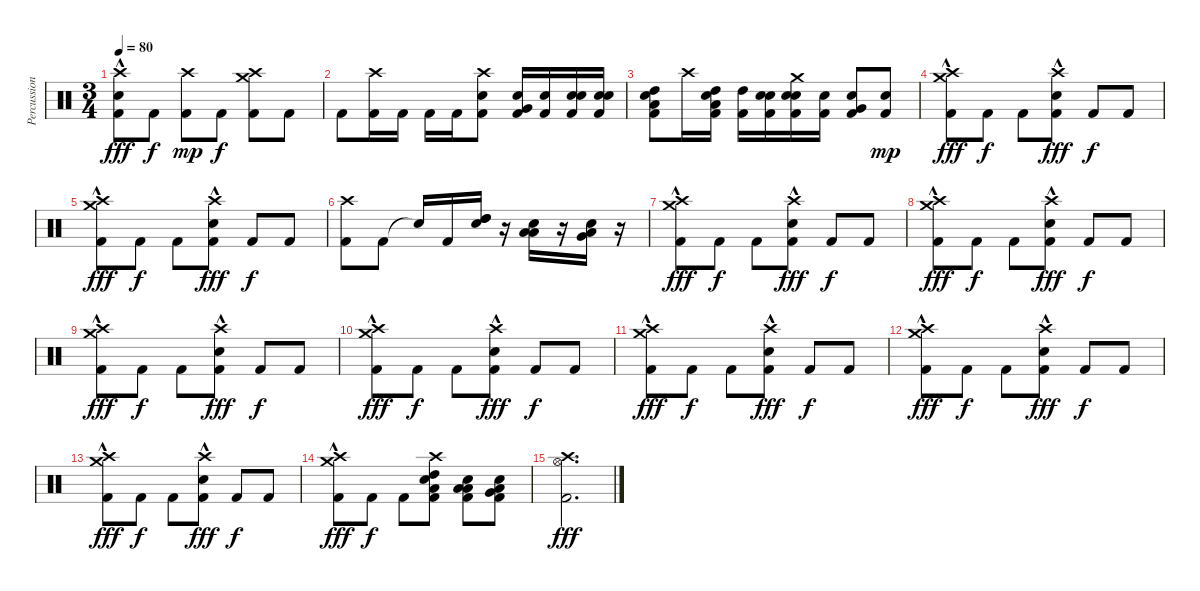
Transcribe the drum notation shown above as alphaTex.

\track ("Percussion" "Percussion") {instrument percussion}
\staff {score}
\articulation defaults
\ts (3 4)
\tempo 80
\clef neutral
\ks c
("Crash high (hit)" "Electric Snare (hit)"{hac} "Kick (hit) 2").8{dy fff} "Kick (hit) 2".8{dy f} ("Crash high (hit)" "Kick (hit) 2").8{dy mp} "Kick (hit) 2".8{dy f} ("Crash high (hit)" "Crash medium (hit)" "Kick (hit) 2").8 "Kick (hit) 2".8 |
"Kick (hit) 2".8 ("Crash high (hit)" "Kick (hit) 2").16 "Kick (hit) 2".16 "Kick (hit) 2".16 "Kick (hit) 2".16 ("Crash high (hit)" "Electric Snare (hit)" "Kick (hit) 2").8 ("Very Low Tom (hit)" "Electric Snare (hit)" "Kick (hit) 2").16 ("Electric Snare (hit)" "Kick (hit) 2").16 ("Electric Snare (hit)" "Electric Snare (hit)" "Kick (hit) 2").16 ("Electric Snare (hit)" "Electric Snare (hit)" "Kick (hit) 2").16 |
("Electric Snare (hit)" "High Tom (hit)" "Low Tom (hit)" "Kick (hit) 2").8 "Crash high (hit)".16 ("Electric Snare (hit)" "High Tom (hit)" "Low Tom (hit)" "Kick (hit) 2").16 ("High Tom (hit)" "Kick (hit) 2").16 ("Electric Snare (hit)" "Electric Snare (hit)" "Kick (hit) 2").16 ("Crash medium (hit)" "Electric Snare (hit)" "Electric Snare (hit)" "Kick (hit) 2").16 ("Electric Snare (hit)" "Kick (hit) 2").16 ("Electric Snare (hit)" "Very Low Tom (hit)" "Kick (hit) 2").8 ("Electric Snare (hit)" "Kick (hit) 2").8{dy mp} |
("Crash high (hit)" "Crash medium (hit)"{hac} "Kick (hit) 2").8{dy fff} "Kick (hit) 2".8{dy f} "Kick (hit) 2".8 ("Crash high (hit)" "Electric Snare (hit)"{hac} "Kick (hit) 2").8{dy fff} "Kick (hit) 2".8{dy f} "Kick (hit) 2".8 |
("Crash high (hit)" "Crash medium (hit)"{hac} "Kick (hit) 2").8{dy fff} "Kick (hit) 2".8{dy f} "Kick (hit) 2".8 ("Crash high (hit)" "Electric Snare (hit)"{hac} "Kick (hit) 2").8{dy fff} "Kick (hit) 2".8{dy f} "Kick (hit) 2".8 |
("Crash high (hit)" "Kick (hit) 2").8 "Kick (hit) 2".8 "Snare (hit)"{t}.16 "Kick (hit) 2".16 ("High Tom (hit)" "High Tom (hit)" "Electric Snare (hit)").16 r.16 ("Low Tom (hit)" "Low Tom (hit)" "Electric Snare (hit)").16 r.16 ("Very Low Tom (hit)" "Low Tom (hit)" "Electric Snare (hit)").16 r.16 |
("Crash high (hit)" "Crash medium (hit)"{hac} "Kick (hit) 2").8{dy fff} "Kick (hit) 2".8{dy f} "Kick (hit) 2".8 ("Crash high (hit)" "Electric Snare (hit)"{hac} "Kick (hit) 2").8{dy fff} "Kick (hit) 2".8{dy f} "Kick (hit) 2".8 |
("Crash high (hit)" "Crash medium (hit)"{hac} "Kick (hit) 2").8{dy fff} "Kick (hit) 2".8{dy f} "Kick (hit) 2".8 ("Crash high (hit)" "Electric Snare (hit)"{hac} "Kick (hit) 2").8{dy fff} "Kick (hit) 2".8{dy f} "Kick (hit) 2".8 |
("Crash high (hit)" "Crash medium (hit)"{hac} "Kick (hit) 2").8{dy fff} "Kick (hit) 2".8{dy f} "Kick (hit) 2".8 ("Crash high (hit)" "Electric Snare (hit)"{hac} "Kick (hit) 2").8{dy fff} "Kick (hit) 2".8{dy f} "Kick (hit) 2".8 |
("Crash high (hit)" "Crash medium (hit)"{hac} "Kick (hit) 2").8{dy fff} "Kick (hit) 2".8{dy f} "Kick (hit) 2".8 ("Crash high (hit)" "Electric Snare (hit)"{hac} "Kick (hit) 2").8{dy fff} "Kick (hit) 2".8{dy f} "Kick (hit) 2".8 |
("Crash high (hit)" "Crash medium (hit)"{hac} "Kick (hit) 2").8{dy fff} "Kick (hit) 2".8{dy f} "Kick (hit) 2".8 ("Crash high (hit)" "Electric Snare (hit)"{hac} "Kick (hit) 2").8{dy fff} "Kick (hit) 2".8{dy f} "Kick (hit) 2".8 |
("Crash high (hit)" "Crash medium (hit)"{hac} "Kick (hit) 2").8{dy fff} "Kick (hit) 2".8{dy f} "Kick (hit) 2".8 ("Crash high (hit)" "Electric Snare (hit)"{hac} "Kick (hit) 2").8{dy fff} "Kick (hit) 2".8{dy f} "Kick (hit) 2".8 |
("Crash high (hit)" "Crash medium (hit)"{hac} "Kick (hit) 2").8{dy fff} "Kick (hit) 2".8{dy f} "Kick (hit) 2".8 ("Crash high (hit)" "Electric Snare (hit)"{hac} "Kick (hit) 2").8{dy fff} "Kick (hit) 2".8{dy f} "Kick (hit) 2".8 |
("Crash high (hit)" "Crash medium (hit)"{hac} "Kick (hit) 2").8{dy fff} "Kick (hit) 2".8{dy f} "Kick (hit) 2".8 ("Crash high (hit)" "High Tom (hit)" "Low Tom (hit)" "Electric Snare (hit)" "Kick (hit) 2").8 ("Low Tom (hit)" "Low Tom (hit)" "Electric Snare (hit)" "Kick (hit) 2").8 ("Very Low Tom (hit)" "Low Tom (hit)" "Electric Snare (hit)" "Kick (hit) 2").8 |
("Crash high (hit)" "Hi-Hat (open)" "Kick (hit) 2").2{d dy fff}
